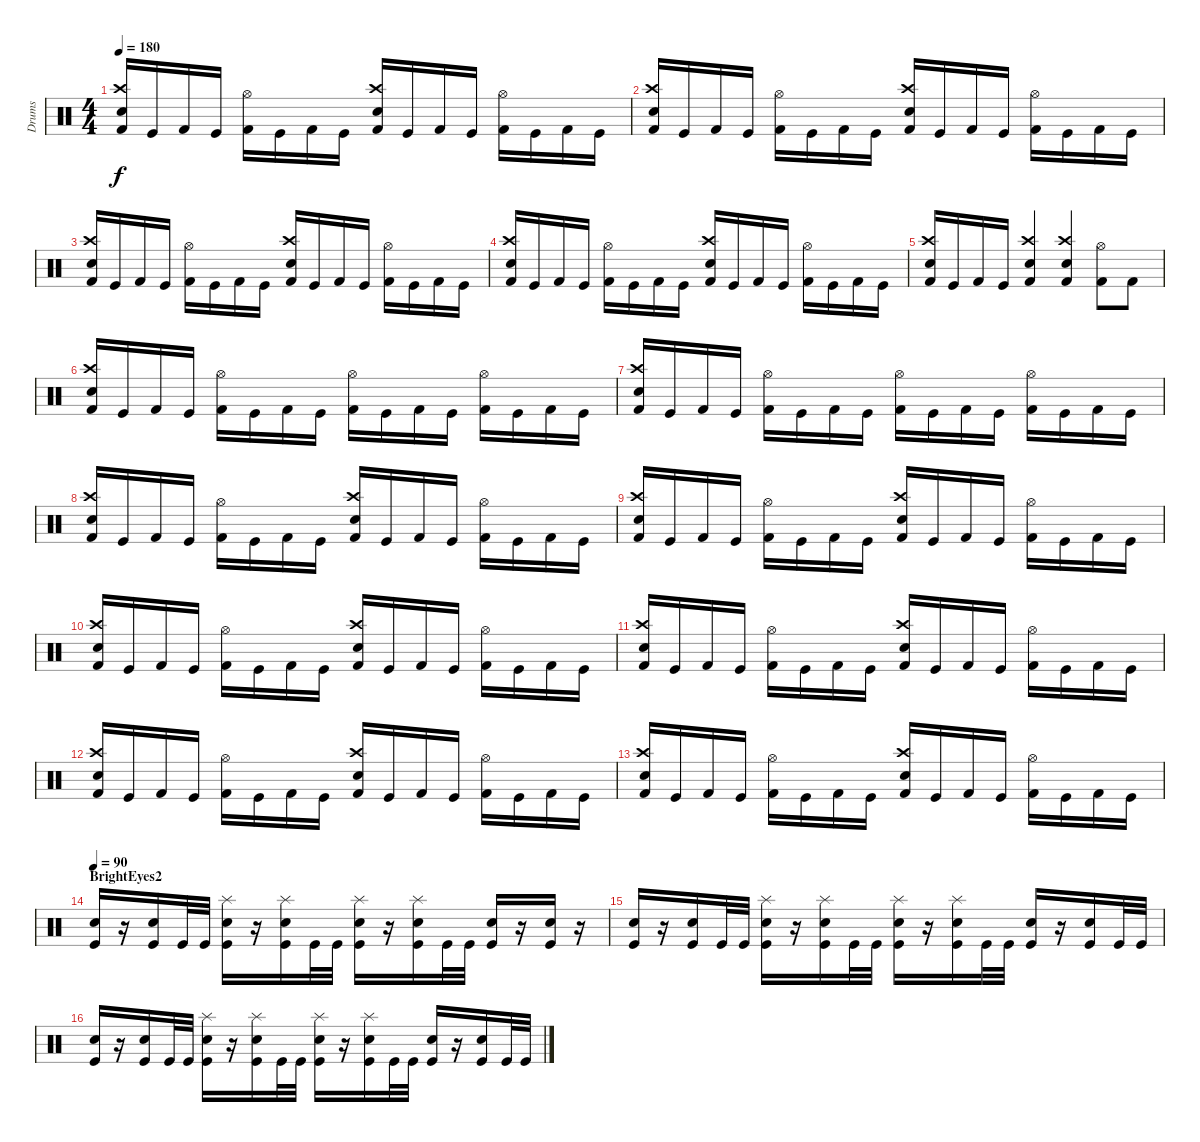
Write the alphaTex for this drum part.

\track ("Drums" "Drums") {instrument percussion}
\staff {score}
\articulation defaults
\ts (4 4)
\tempo 180
\clef neutral
\ks c
("Kick (hit) 2" "Crash high (hit)" "Snare (hit) 2").16{dy f} "Kick (hit)".16 "Kick (hit) 2".16 "Kick (hit)".16 ("Kick (hit) 2" "Hi-Hat (open)").16 "Kick (hit)".16 "Kick (hit) 2".16 "Kick (hit)".16 ("Kick (hit) 2" "Snare (hit) 2" "Crash high (hit)").16 "Kick (hit)".16 "Kick (hit) 2".16 "Kick (hit)".16 ("Kick (hit) 2" "Hi-Hat (open)").16 "Kick (hit)".16 "Kick (hit) 2".16 "Kick (hit)".16 |
("Kick (hit) 2" "Crash high (hit)" "Snare (hit) 2").16 "Kick (hit)".16 "Kick (hit) 2".16 "Kick (hit)".16 ("Kick (hit) 2" "Hi-Hat (open)").16 "Kick (hit)".16 "Kick (hit) 2".16 "Kick (hit)".16 ("Kick (hit) 2" "Crash high (hit)" "Snare (hit) 2").16 "Kick (hit)".16 "Kick (hit) 2".16 "Kick (hit)".16 ("Kick (hit) 2" "Hi-Hat (open)").16 "Kick (hit)".16 "Kick (hit) 2".16 "Kick (hit)".16 |
("Kick (hit) 2" "Crash high (hit)" "Snare (hit) 2").16 "Kick (hit)".16 "Kick (hit) 2".16 "Kick (hit)".16 ("Kick (hit) 2" "Hi-Hat (open)").16 "Kick (hit)".16 "Kick (hit) 2".16 "Kick (hit)".16 ("Kick (hit) 2" "Crash high (hit)" "Snare (hit) 2").16 "Kick (hit)".16 "Kick (hit) 2".16 "Kick (hit)".16 ("Kick (hit) 2" "Hi-Hat (open)").16 "Kick (hit)".16 "Kick (hit) 2".16 "Kick (hit)".16 |
("Kick (hit) 2" "Crash high (hit)" "Snare (hit) 2").16 "Kick (hit)".16 "Kick (hit) 2".16 "Kick (hit)".16 ("Kick (hit) 2" "Hi-Hat (open)").16 "Kick (hit)".16 "Kick (hit) 2".16 "Kick (hit)".16 ("Kick (hit) 2" "Snare (hit) 2" "Crash high (hit)").16 "Kick (hit)".16 "Kick (hit) 2".16 "Kick (hit)".16 ("Kick (hit) 2" "Hi-Hat (open)").16 "Kick (hit)".16 "Kick (hit) 2".16 "Kick (hit)".16 |
("Kick (hit) 2" "Crash high (hit)" "Snare (hit) 2").16 "Kick (hit)".16 "Kick (hit) 2".16 "Kick (hit)".16 ("Kick (hit) 2" "Electric Snare (hit)" "Crash high (hit)").4 ("Kick (hit) 2" "Electric Snare (hit)" "Crash high (hit)").4 ("Kick (hit) 2" "Hi-Hat (open)").8 "Kick (hit) 2".8 |
("Kick (hit) 2" "Crash high (hit)" "Snare (hit) 2").16 "Kick (hit)".16 "Kick (hit) 2".16 "Kick (hit)".16 ("Kick (hit) 2" "Hi-Hat (open)").16 "Kick (hit)".16 "Kick (hit) 2".16 "Kick (hit)".16 ("Kick (hit) 2" "Hi-Hat (open)").16 "Kick (hit)".16 "Kick (hit) 2".16 "Kick (hit)".16 ("Kick (hit) 2" "Hi-Hat (open)").16 "Kick (hit)".16 "Kick (hit) 2".16 "Kick (hit)".16 |
("Kick (hit) 2" "Crash high (hit)" "Snare (hit) 2").16 "Kick (hit)".16 "Kick (hit) 2".16 "Kick (hit)".16 ("Kick (hit) 2" "Hi-Hat (open)").16 "Kick (hit)".16 "Kick (hit) 2".16 "Kick (hit)".16 ("Kick (hit) 2" "Hi-Hat (open)").16 "Kick (hit)".16 "Kick (hit) 2".16 "Kick (hit)".16 ("Kick (hit) 2" "Hi-Hat (open)").16 "Kick (hit)".16 "Kick (hit) 2".16 "Kick (hit)".16 |
("Kick (hit) 2" "Crash high (hit)" "Snare (hit) 2").16 "Kick (hit)".16 "Kick (hit) 2".16 "Kick (hit)".16 ("Kick (hit) 2" "Hi-Hat (open)").16 "Kick (hit)".16 "Kick (hit) 2".16 "Kick (hit)".16 ("Kick (hit) 2" "Snare (hit) 2" "Crash high (hit)").16 "Kick (hit)".16 "Kick (hit) 2".16 "Kick (hit)".16 ("Kick (hit) 2" "Hi-Hat (open)").16 "Kick (hit)".16 "Kick (hit) 2".16 "Kick (hit)".16 |
("Kick (hit) 2" "Crash high (hit)" "Snare (hit) 2").16 "Kick (hit)".16 "Kick (hit) 2".16 "Kick (hit)".16 ("Kick (hit) 2" "Hi-Hat (open)").16 "Kick (hit)".16 "Kick (hit) 2".16 "Kick (hit)".16 ("Kick (hit) 2" "Snare (hit) 2" "Crash high (hit)").16 "Kick (hit)".16 "Kick (hit) 2".16 "Kick (hit)".16 ("Kick (hit) 2" "Hi-Hat (open)").16 "Kick (hit)".16 "Kick (hit) 2".16 "Kick (hit)".16 |
("Kick (hit) 2" "Crash high (hit)" "Snare (hit) 2").16 "Kick (hit)".16 "Kick (hit) 2".16 "Kick (hit)".16 ("Kick (hit) 2" "Hi-Hat (open)").16 "Kick (hit)".16 "Kick (hit) 2".16 "Kick (hit)".16 ("Kick (hit) 2" "Snare (hit) 2" "Crash high (hit)").16 "Kick (hit)".16 "Kick (hit) 2".16 "Kick (hit)".16 ("Kick (hit) 2" "Hi-Hat (open)").16 "Kick (hit)".16 "Kick (hit) 2".16 "Kick (hit)".16 |
("Kick (hit) 2" "Crash high (hit)" "Snare (hit) 2").16 "Kick (hit)".16 "Kick (hit) 2".16 "Kick (hit)".16 ("Kick (hit) 2" "Hi-Hat (open)").16 "Kick (hit)".16 "Kick (hit) 2".16 "Kick (hit)".16 ("Kick (hit) 2" "Snare (hit) 2" "Crash high (hit)").16 "Kick (hit)".16 "Kick (hit) 2".16 "Kick (hit)".16 ("Kick (hit) 2" "Hi-Hat (open)").16 "Kick (hit)".16 "Kick (hit) 2".16 "Kick (hit)".16 |
("Kick (hit) 2" "Crash high (hit)" "Snare (hit) 2").16 "Kick (hit)".16 "Kick (hit) 2".16 "Kick (hit)".16 ("Kick (hit) 2" "Hi-Hat (open)").16 "Kick (hit)".16 "Kick (hit) 2".16 "Kick (hit)".16 ("Kick (hit) 2" "Snare (hit) 2" "Crash high (hit)").16 "Kick (hit)".16 "Kick (hit) 2".16 "Kick (hit)".16 ("Kick (hit) 2" "Hi-Hat (open)").16 "Kick (hit)".16 "Kick (hit) 2".16 "Kick (hit)".16 |
("Kick (hit) 2" "Crash high (hit)" "Snare (hit) 2").16 "Kick (hit)".16 "Kick (hit) 2".16 "Kick (hit)".16 ("Kick (hit) 2" "Hi-Hat (open)").16 "Kick (hit)".16 "Kick (hit) 2".16 "Kick (hit)".16 ("Kick (hit) 2" "Snare (hit) 2" "Crash high (hit)").16 "Kick (hit)".16 "Kick (hit) 2".16 "Kick (hit)".16 ("Kick (hit) 2" "Hi-Hat (open)").16 "Kick (hit)".16 "Kick (hit) 2".16 "Kick (hit)".16 |
\section ("" "BrightEyes2")
\tempo 90
("Snare (hit) 2" "Kick (hit)").16 r.16 ("Snare (hit) 2" "Kick (hit)").16 "Kick (hit)".32 "Kick (hit)".32 ("Splash (hit)" "Snare (hit) 2" "Kick (hit)").16 r.16 ("Splash (hit)" "Snare (hit) 2" "Kick (hit)").16 "Kick (hit)".32 "Kick (hit)".32 ("Splash (hit)" "Snare (hit) 2" "Kick (hit)").16 r.16 ("Splash (hit)" "Snare (hit) 2" "Kick (hit)").16 "Kick (hit)".32 "Kick (hit)".32 ("Snare (hit) 2" "Kick (hit)").16 r.16 ("Snare (hit) 2" "Kick (hit)").16 r.16 |
("Snare (hit) 2" "Kick (hit)").16 r.16 ("Snare (hit) 2" "Kick (hit)").16 "Kick (hit)".32 "Kick (hit)".32 ("Splash (hit)" "Snare (hit) 2" "Kick (hit)").16 r.16 ("Splash (hit)" "Snare (hit) 2" "Kick (hit)").16 "Kick (hit)".32 "Kick (hit)".32 ("Splash (hit)" "Snare (hit) 2" "Kick (hit)").16 r.16 ("Splash (hit)" "Snare (hit) 2" "Kick (hit)").16 "Kick (hit)".32 "Kick (hit)".32 ("Snare (hit) 2" "Kick (hit)").16 r.16 ("Snare (hit) 2" "Kick (hit)").16 "Kick (hit)".32 "Kick (hit)".32 |
("Snare (hit) 2" "Kick (hit)").16 r.16 ("Snare (hit) 2" "Kick (hit)").16 "Kick (hit)".32 "Kick (hit)".32 ("Splash (hit)" "Snare (hit) 2" "Kick (hit)").16 r.16 ("Splash (hit)" "Snare (hit) 2" "Kick (hit)").16 "Kick (hit)".32 "Kick (hit)".32 ("Splash (hit)" "Snare (hit) 2" "Kick (hit)").16 r.16 ("Splash (hit)" "Snare (hit) 2" "Kick (hit)").16 "Kick (hit)".32 "Kick (hit)".32 ("Snare (hit) 2" "Kick (hit)").16 r.16 ("Snare (hit) 2" "Kick (hit)").16 "Kick (hit)".32 "Kick (hit)".32
